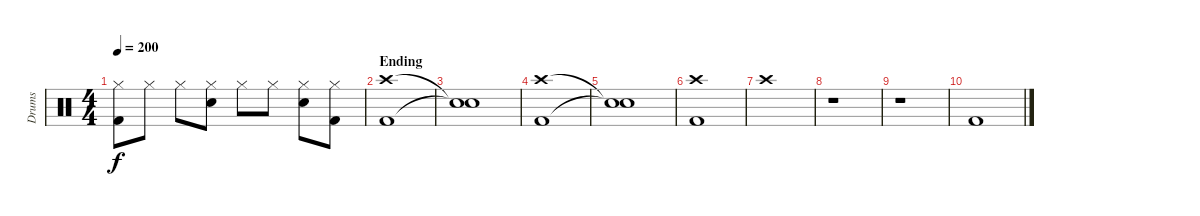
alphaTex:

\track ("Drums" "Drums") {instrument percussion}
\staff {score}
\articulation defaults
\ts (4 4)
\tempo 200
\clef neutral
\ks c
("Hi-Hat (closed)" "Kick (hit) 2").8{dy f} "Hi-Hat (closed)".8 "Hi-Hat (closed)".8 ("Hi-Hat (closed)" "Electric Snare (hit)").8 "Hi-Hat (closed)".8 "Hi-Hat (closed)".8 ("Hi-Hat (closed)" "Electric Snare (hit)").8 ("Hi-Hat (closed)" "Kick (hit) 2").8 |
\section ("" "Ending")
("Crash high (hit)" "Kick (hit) 2").1 |
("Snare (hit)"{t} "Snare (hit)"{t}).1 |
("Crash high (hit)" "Kick (hit) 2").1 |
("Snare (hit)"{t} "Snare (hit)"{t}).1 |
("Crash high (hit)" "Kick (hit) 2").1 |
"Crash high (hit)".1 |
r.1 |
r.1 |
"Kick (hit) 2".1
